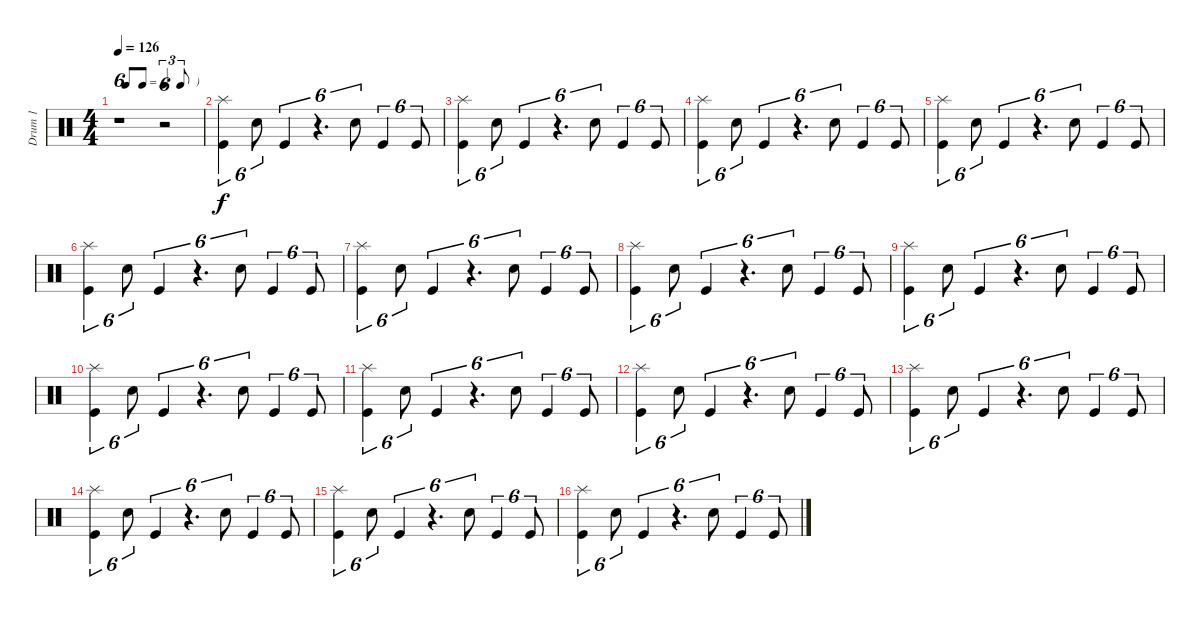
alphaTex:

\track ("Drum 1" "Drum 1") {instrument percussion}
\staff {score}
\articulation defaults
\ts (4 4)
\tf triplet8th
\tempo 126
\clef neutral
\ks c
r.1{tu (6 4) dy f} r.2{tu (6 4)} |
("Kick (hit)" "Splash (hit)").4{tu (6 4)} "Snare (hit) 2".8{tu (6 4)} "Kick (hit)".4{tu (6 4)} r.4{d tu (6 4)} "Snare (hit) 2".8{tu (6 4)} "Kick (hit)".4{tu (6 4)} "Kick (hit)".8{tu (6 4)} |
("Kick (hit)" "Splash (hit)").4{tu (6 4)} "Snare (hit) 2".8{tu (6 4)} "Kick (hit)".4{tu (6 4)} r.4{d tu (6 4)} "Snare (hit) 2".8{tu (6 4)} "Kick (hit)".4{tu (6 4)} "Kick (hit)".8{tu (6 4)} |
("Kick (hit)" "Splash (hit)").4{tu (6 4)} "Snare (hit) 2".8{tu (6 4)} "Kick (hit)".4{tu (6 4)} r.4{d tu (6 4)} "Snare (hit) 2".8{tu (6 4)} "Kick (hit)".4{tu (6 4)} "Kick (hit)".8{tu (6 4)} |
("Kick (hit)" "Splash (hit)").4{tu (6 4)} "Snare (hit) 2".8{tu (6 4)} "Kick (hit)".4{tu (6 4)} r.4{d tu (6 4)} "Snare (hit) 2".8{tu (6 4)} "Kick (hit)".4{tu (6 4)} "Kick (hit)".8{tu (6 4)} |
("Kick (hit)" "Splash (hit)").4{tu (6 4)} "Snare (hit) 2".8{tu (6 4)} "Kick (hit)".4{tu (6 4)} r.4{d tu (6 4)} "Snare (hit) 2".8{tu (6 4)} "Kick (hit)".4{tu (6 4)} "Kick (hit)".8{tu (6 4)} |
("Kick (hit)" "Splash (hit)").4{tu (6 4)} "Snare (hit) 2".8{tu (6 4)} "Kick (hit)".4{tu (6 4)} r.4{d tu (6 4)} "Snare (hit) 2".8{tu (6 4)} "Kick (hit)".4{tu (6 4)} "Kick (hit)".8{tu (6 4)} |
("Kick (hit)" "Splash (hit)").4{tu (6 4)} "Snare (hit) 2".8{tu (6 4)} "Kick (hit)".4{tu (6 4)} r.4{d tu (6 4)} "Snare (hit) 2".8{tu (6 4)} "Kick (hit)".4{tu (6 4)} "Kick (hit)".8{tu (6 4)} |
("Kick (hit)" "Splash (hit)").4{tu (6 4)} "Snare (hit) 2".8{tu (6 4)} "Kick (hit)".4{tu (6 4)} r.4{d tu (6 4)} "Snare (hit) 2".8{tu (6 4)} "Kick (hit)".4{tu (6 4)} "Kick (hit)".8{tu (6 4)} |
("Kick (hit)" "Splash (hit)").4{tu (6 4)} "Snare (hit) 2".8{tu (6 4)} "Kick (hit)".4{tu (6 4)} r.4{d tu (6 4)} "Snare (hit) 2".8{tu (6 4)} "Kick (hit)".4{tu (6 4)} "Kick (hit)".8{tu (6 4)} |
("Kick (hit)" "Splash (hit)").4{tu (6 4)} "Snare (hit) 2".8{tu (6 4)} "Kick (hit)".4{tu (6 4)} r.4{d tu (6 4)} "Snare (hit) 2".8{tu (6 4)} "Kick (hit)".4{tu (6 4)} "Kick (hit)".8{tu (6 4)} |
("Kick (hit)" "Splash (hit)").4{tu (6 4)} "Snare (hit) 2".8{tu (6 4)} "Kick (hit)".4{tu (6 4)} r.4{d tu (6 4)} "Snare (hit) 2".8{tu (6 4)} "Kick (hit)".4{tu (6 4)} "Kick (hit)".8{tu (6 4)} |
("Kick (hit)" "Splash (hit)").4{tu (6 4)} "Snare (hit) 2".8{tu (6 4)} "Kick (hit)".4{tu (6 4)} r.4{d tu (6 4)} "Snare (hit) 2".8{tu (6 4)} "Kick (hit)".4{tu (6 4)} "Kick (hit)".8{tu (6 4)} |
("Kick (hit)" "Splash (hit)").4{tu (6 4)} "Snare (hit) 2".8{tu (6 4)} "Kick (hit)".4{tu (6 4)} r.4{d tu (6 4)} "Snare (hit) 2".8{tu (6 4)} "Kick (hit)".4{tu (6 4)} "Kick (hit)".8{tu (6 4)} |
("Kick (hit)" "Splash (hit)").4{tu (6 4)} "Snare (hit) 2".8{tu (6 4)} "Kick (hit)".4{tu (6 4)} r.4{d tu (6 4)} "Snare (hit) 2".8{tu (6 4)} "Kick (hit)".4{tu (6 4)} "Kick (hit)".8{tu (6 4)} |
("Kick (hit)" "Splash (hit)").4{tu (6 4)} "Snare (hit) 2".8{tu (6 4)} "Kick (hit)".4{tu (6 4)} r.4{d tu (6 4)} "Snare (hit) 2".8{tu (6 4)} "Kick (hit)".4{tu (6 4)} "Kick (hit)".8{tu (6 4)}
